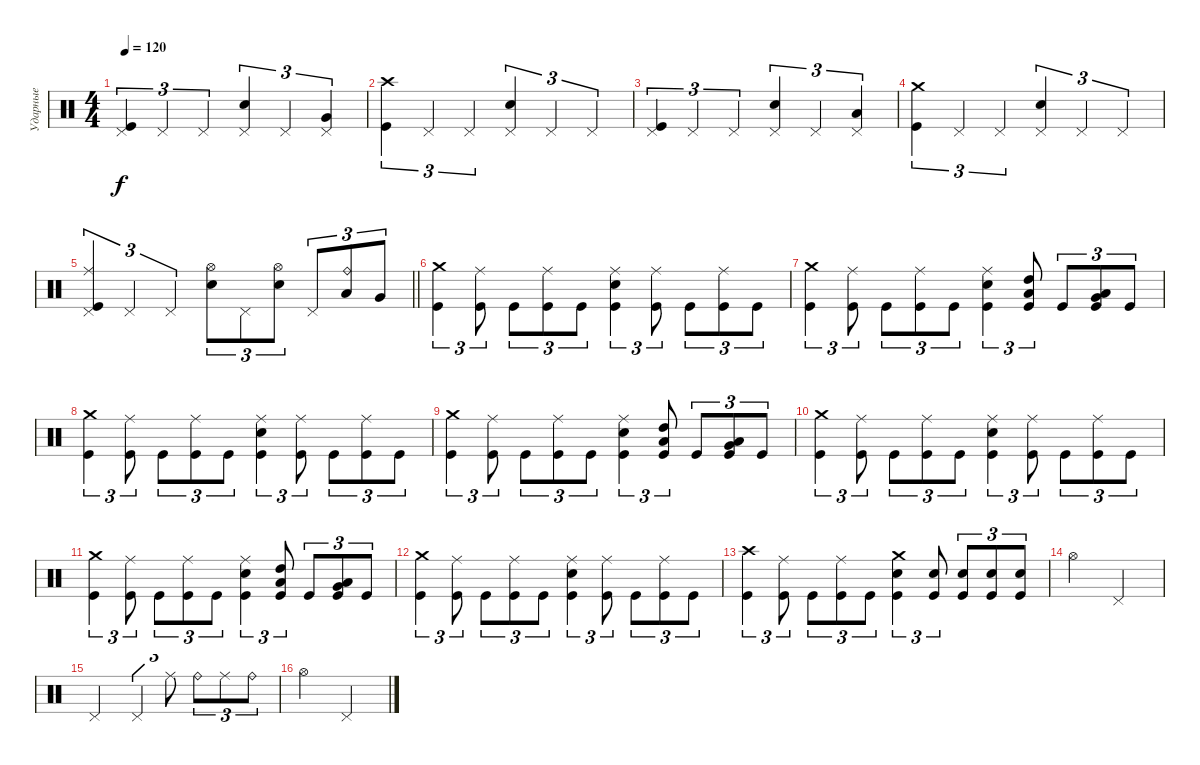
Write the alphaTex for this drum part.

\track ("Ударные" "Ударные") {instrument percussion}
\staff {score}
\articulation defaults
\ts (4 4)
\tempo 120
\clef neutral
\ks c
("Pedal Hi-Hat (hit)" "Kick (hit)").4{tu (3 2) dy f} "Pedal Hi-Hat (hit)".4{tu (3 2)} "Pedal Hi-Hat (hit)".4{tu (3 2)} ("Pedal Hi-Hat (hit)" "Electric Snare (hit)").4{tu (3 2)} "Pedal Hi-Hat (hit)".4{tu (3 2)} ("Pedal Hi-Hat (hit)" "Very Low Tom (hit)").4{tu (3 2)} |
("Crash high (hit)" "Kick (hit)").4{tu (3 2)} "Pedal Hi-Hat (hit)".4{tu (3 2)} "Pedal Hi-Hat (hit)".4{tu (3 2)} ("Pedal Hi-Hat (hit)" "Electric Snare (hit)").4{tu (3 2)} "Pedal Hi-Hat (hit)".4{tu (3 2)} "Pedal Hi-Hat (hit)".4{tu (3 2)} |
("Pedal Hi-Hat (hit)" "Kick (hit)").4{tu (3 2)} "Pedal Hi-Hat (hit)".4{tu (3 2)} "Pedal Hi-Hat (hit)".4{tu (3 2)} ("Pedal Hi-Hat (hit)" "Electric Snare (hit)").4{tu (3 2)} "Pedal Hi-Hat (hit)".4{tu (3 2)} ("Pedal Hi-Hat (hit)" "Low Floor Tom (hit)").4{tu (3 2)} |
("Crash medium (hit)" "Kick (hit)").4{tu (3 2)} "Pedal Hi-Hat (hit)".4{tu (3 2)} "Pedal Hi-Hat (hit)".4{tu (3 2)} ("Pedal Hi-Hat (hit)" "Electric Snare (hit)").4{tu (3 2)} "Pedal Hi-Hat (hit)".4{tu (3 2)} "Pedal Hi-Hat (hit)".4{tu (3 2)} |
\barLineRight lightlight
("Ride (middle)" "Pedal Hi-Hat (hit)" "Kick (hit)").4{tu (3 2)} "Pedal Hi-Hat (hit)".4{tu (3 2)} "Pedal Hi-Hat (hit)".4{tu (3 2)} ("Hi-Hat (open)" "Electric Snare (hit)").8{tu (3 2)} "Pedal Hi-Hat (hit)".8{tu (3 2)} ("Hi-Hat (open)" "Electric Snare (hit)").8{tu (3 2)} "Pedal Hi-Hat (hit)".8{tu (3 2)} ("Ride (bell)" "Low Tom (hit)").8{tu (3 2)} "Very Low Tom (hit)".8{tu (3 2)} |
\section ("" " ")
("Crash medium (hit)" "Kick (hit)").4{tu (3 2)} ("Ride (middle)" "Kick (hit)").8{tu (3 2)} "Kick (hit)".8{tu (3 2)} ("Ride (middle)" "Kick (hit)").8{tu (3 2)} "Kick (hit)".8{tu (3 2)} ("Ride (middle)" "Electric Snare (hit)" "Kick (hit)").4{tu (3 2)} ("Ride (middle)" "Kick (hit)").8{tu (3 2)} "Kick (hit)".8{tu (3 2)} ("Ride (middle)" "Kick (hit)").8{tu (3 2)} "Kick (hit)".8{tu (3 2)} |
("Crash medium (hit)" "Kick (hit)").4{tu (3 2)} ("Ride (middle)" "Kick (hit)").8{tu (3 2)} "Kick (hit)".8{tu (3 2)} ("Ride (middle)" "Kick (hit)").8{tu (3 2)} "Kick (hit)".8{tu (3 2)} ("Ride (middle)" "Electric Snare (hit)" "Kick (hit)").4{tu (3 2)} ("Low Tom (hit)" "High Tom (hit)" "Kick (hit)").8{tu (3 2)} "Kick (hit)".8{tu (3 2)} ("Very Low Tom (hit)" "Low Tom (hit)" "Kick (hit)").8{tu (3 2)} "Kick (hit)".8{tu (3 2)} |
("Crash medium (hit)" "Kick (hit)").4{tu (3 2)} ("Ride (middle)" "Kick (hit)").8{tu (3 2)} "Kick (hit)".8{tu (3 2)} ("Ride (middle)" "Kick (hit)").8{tu (3 2)} "Kick (hit)".8{tu (3 2)} ("Ride (middle)" "Electric Snare (hit)" "Kick (hit)").4{tu (3 2)} ("Ride (middle)" "Kick (hit)").8{tu (3 2)} "Kick (hit)".8{tu (3 2)} ("Ride (middle)" "Kick (hit)").8{tu (3 2)} "Kick (hit)".8{tu (3 2)} |
("Crash medium (hit)" "Kick (hit)").4{tu (3 2)} ("Ride (middle)" "Kick (hit)").8{tu (3 2)} "Kick (hit)".8{tu (3 2)} ("Ride (middle)" "Kick (hit)").8{tu (3 2)} "Kick (hit)".8{tu (3 2)} ("Ride (middle)" "Electric Snare (hit)" "Kick (hit)").4{tu (3 2)} ("Low Tom (hit)" "High Tom (hit)" "Kick (hit)").8{tu (3 2)} "Kick (hit)".8{tu (3 2)} ("Very Low Tom (hit)" "Low Tom (hit)" "Kick (hit)").8{tu (3 2)} "Kick (hit)".8{tu (3 2)} |
("Crash medium (hit)" "Kick (hit)").4{tu (3 2)} ("Ride (middle)" "Kick (hit)").8{tu (3 2)} "Kick (hit)".8{tu (3 2)} ("Ride (middle)" "Kick (hit)").8{tu (3 2)} "Kick (hit)".8{tu (3 2)} ("Ride (middle)" "Electric Snare (hit)" "Kick (hit)").4{tu (3 2)} ("Ride (middle)" "Kick (hit)").8{tu (3 2)} "Kick (hit)".8{tu (3 2)} ("Ride (middle)" "Kick (hit)").8{tu (3 2)} "Kick (hit)".8{tu (3 2)} |
("Crash medium (hit)" "Kick (hit)").4{tu (3 2)} ("Ride (middle)" "Kick (hit)").8{tu (3 2)} "Kick (hit)".8{tu (3 2)} ("Ride (middle)" "Kick (hit)").8{tu (3 2)} "Kick (hit)".8{tu (3 2)} ("Ride (middle)" "Electric Snare (hit)" "Kick (hit)").4{tu (3 2)} ("Low Tom (hit)" "High Tom (hit)" "Kick (hit)").8{tu (3 2)} "Kick (hit)".8{tu (3 2)} ("Very Low Tom (hit)" "Low Tom (hit)" "Kick (hit)").8{tu (3 2)} "Kick (hit)".8{tu (3 2)} |
("Crash medium (hit)" "Kick (hit)").4{tu (3 2)} ("Ride (middle)" "Kick (hit)").8{tu (3 2)} "Kick (hit)".8{tu (3 2)} ("Ride (middle)" "Kick (hit)").8{tu (3 2)} "Kick (hit)".8{tu (3 2)} ("Ride (middle)" "Electric Snare (hit)" "Kick (hit)").4{tu (3 2)} ("Ride (middle)" "Kick (hit)").8{tu (3 2)} "Kick (hit)".8{tu (3 2)} ("Ride (middle)" "Kick (hit)").8{tu (3 2)} "Kick (hit)".8{tu (3 2)} |
("Crash high (hit)" "Kick (hit)").4{tu (3 2)} ("Ride (middle)" "Kick (hit)").8{tu (3 2)} "Kick (hit)".8{tu (3 2)} ("Ride (middle)" "Kick (hit)").8{tu (3 2)} "Kick (hit)".8{tu (3 2)} ("Crash medium (hit)" "Electric Snare (hit)" "Kick (hit)").4{tu (3 2)} ("Electric Snare (hit)" "Kick (hit)").8{tu (3 2)} ("Electric Snare (hit)" "Kick (hit)").8{tu (3 2)} ("Electric Snare (hit)" "Kick (hit)").8{tu (3 2)} ("Electric Snare (hit)" "Kick (hit)").8{tu (3 2)} |
"Hi-Hat (open)".2 "Pedal Hi-Hat (hit)".2 |
"Pedal Hi-Hat (hit)".2 "Pedal Hi-Hat (hit)".4{tu (3 2)} "Ride (middle)".8{tu (3 2)} "Ride (bell)".8{tu (3 2)} "Ride (middle)".8{tu (3 2)} "Ride (bell)".8{tu (3 2)} |
"Hi-Hat (open)".2 "Pedal Hi-Hat (hit)".2
